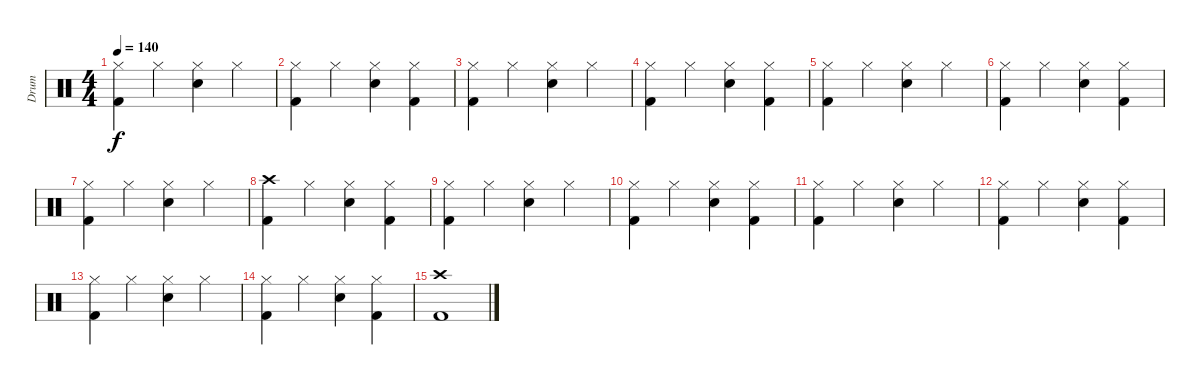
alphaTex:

\track ("Drum" "Drum") {instrument percussion}
\staff {score}
\articulation defaults
\ts (4 4)
\tempo 140
\clef neutral
\ks c
("Hi-Hat (closed)" "Kick (hit) 2").4{dy f} "Hi-Hat (closed)".4 ("Hi-Hat (closed)" "Electric Snare (hit)").4 "Hi-Hat (closed)".4 |
("Hi-Hat (closed)" "Kick (hit) 2").4 "Hi-Hat (closed)".4 ("Hi-Hat (closed)" "Electric Snare (hit)").4 ("Hi-Hat (closed)" "Kick (hit) 2").4 |
("Hi-Hat (closed)" "Kick (hit) 2").4 "Hi-Hat (closed)".4 ("Hi-Hat (closed)" "Electric Snare (hit)").4 "Hi-Hat (closed)".4 |
("Hi-Hat (closed)" "Kick (hit) 2").4 "Hi-Hat (closed)".4 ("Hi-Hat (closed)" "Electric Snare (hit)").4 ("Hi-Hat (closed)" "Kick (hit) 2").4 |
("Hi-Hat (closed)" "Kick (hit) 2").4 "Hi-Hat (closed)".4 ("Hi-Hat (closed)" "Electric Snare (hit)").4 "Hi-Hat (closed)".4 |
("Hi-Hat (closed)" "Kick (hit) 2").4 "Hi-Hat (closed)".4 ("Hi-Hat (closed)" "Electric Snare (hit)").4 ("Hi-Hat (closed)" "Kick (hit) 2").4 |
("Hi-Hat (closed)" "Kick (hit) 2").4 "Hi-Hat (closed)".4 ("Hi-Hat (closed)" "Electric Snare (hit)").4 "Hi-Hat (closed)".4 |
("Crash high (hit)" "Kick (hit) 2").4 "Hi-Hat (closed)".4 ("Hi-Hat (closed)" "Electric Snare (hit)").4 ("Hi-Hat (closed)" "Kick (hit) 2").4 |
("Hi-Hat (closed)" "Kick (hit) 2").4 "Hi-Hat (closed)".4 ("Hi-Hat (closed)" "Electric Snare (hit)").4 "Hi-Hat (closed)".4 |
("Hi-Hat (closed)" "Kick (hit) 2").4 "Hi-Hat (closed)".4 ("Hi-Hat (closed)" "Electric Snare (hit)").4 ("Hi-Hat (closed)" "Kick (hit) 2").4 |
("Hi-Hat (closed)" "Kick (hit) 2").4 "Hi-Hat (closed)".4 ("Hi-Hat (closed)" "Electric Snare (hit)").4 "Hi-Hat (closed)".4 |
("Hi-Hat (closed)" "Kick (hit) 2").4 "Hi-Hat (closed)".4 ("Hi-Hat (closed)" "Electric Snare (hit)").4 ("Hi-Hat (closed)" "Kick (hit) 2").4 |
("Hi-Hat (closed)" "Kick (hit) 2").4 "Hi-Hat (closed)".4 ("Hi-Hat (closed)" "Electric Snare (hit)").4 "Hi-Hat (closed)".4 |
("Hi-Hat (closed)" "Kick (hit) 2").4 "Hi-Hat (closed)".4 ("Hi-Hat (closed)" "Electric Snare (hit)").4 ("Hi-Hat (closed)" "Kick (hit) 2").4 |
("Crash high (hit)" "Kick (hit) 2").1
